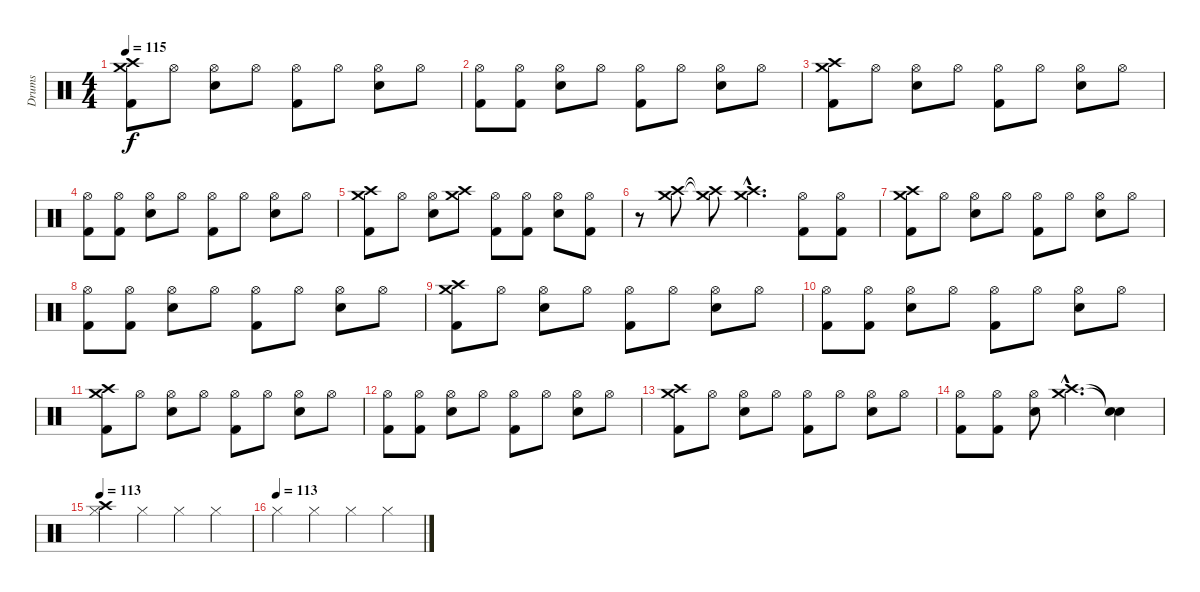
\track ("Drums" "Drums") {instrument percussion}
\staff {score}
\articulation defaults
\ts (4 4)
\tempo 115
\clef neutral
\ks c
("Crash high (hit)" "Crash medium (hit)" "Kick (hit) 2").8{dy f} "Hi-Hat (open)".8 ("Hi-Hat (open)" "Electric Snare (hit)").8 "Hi-Hat (open)".8 ("Hi-Hat (open)" "Kick (hit) 2").8 "Hi-Hat (open)".8 ("Hi-Hat (open)" "Electric Snare (hit)").8 "Hi-Hat (open)".8 |
("Hi-Hat (open)" "Kick (hit) 2").8 ("Hi-Hat (open)" "Kick (hit) 2").8 ("Hi-Hat (open)" "Electric Snare (hit)").8 "Hi-Hat (open)".8 ("Hi-Hat (open)" "Kick (hit) 2").8 "Hi-Hat (open)".8 ("Hi-Hat (open)" "Electric Snare (hit)").8 "Hi-Hat (open)".8 |
("Crash high (hit)" "Crash medium (hit)" "Kick (hit) 2").8 "Hi-Hat (open)".8 ("Hi-Hat (open)" "Electric Snare (hit)").8 "Hi-Hat (open)".8 ("Hi-Hat (open)" "Kick (hit) 2").8 "Hi-Hat (open)".8 ("Hi-Hat (open)" "Electric Snare (hit)").8 "Hi-Hat (open)".8 |
("Hi-Hat (open)" "Kick (hit) 2").8 ("Hi-Hat (open)" "Kick (hit) 2").8 ("Hi-Hat (open)" "Electric Snare (hit)").8 "Hi-Hat (open)".8 ("Hi-Hat (open)" "Kick (hit) 2").8 "Hi-Hat (open)".8 ("Hi-Hat (open)" "Electric Snare (hit)").8 "Hi-Hat (open)".8 |
("Crash high (hit)" "Crash medium (hit)" "Kick (hit) 2").8 "Hi-Hat (open)".8 ("Hi-Hat (open)" "Electric Snare (hit)").8 ("Crash high (hit)" "Crash medium (hit)").8 ("Hi-Hat (open)" "Kick (hit) 2").8 ("Hi-Hat (open)" "Kick (hit) 2").8 ("Hi-Hat (open)" "Electric Snare (hit)").8 ("Hi-Hat (open)" "Kick (hit) 2").8 |
r.8 ("Crash high (hit)" "Crash medium (hit)").8 ("Crash high (hit)"{t} "Crash medium (hit)"{t}).8 ("Crash high (hit)"{hac} "Crash medium (hit)"{hac}).4{d} ("Hi-Hat (open)" "Kick (hit) 2").8 ("Hi-Hat (open)" "Kick (hit) 2").8 |
("Crash high (hit)" "Crash medium (hit)" "Kick (hit) 2").8 "Hi-Hat (open)".8 ("Hi-Hat (open)" "Electric Snare (hit)").8 "Hi-Hat (open)".8 ("Hi-Hat (open)" "Kick (hit) 2").8 "Hi-Hat (open)".8 ("Hi-Hat (open)" "Electric Snare (hit)").8 "Hi-Hat (open)".8 |
("Hi-Hat (open)" "Kick (hit) 2").8 ("Hi-Hat (open)" "Kick (hit) 2").8 ("Hi-Hat (open)" "Electric Snare (hit)").8 "Hi-Hat (open)".8 ("Hi-Hat (open)" "Kick (hit) 2").8 "Hi-Hat (open)".8 ("Hi-Hat (open)" "Electric Snare (hit)").8 "Hi-Hat (open)".8 |
("Crash high (hit)" "Crash medium (hit)" "Kick (hit) 2").8 "Hi-Hat (open)".8 ("Hi-Hat (open)" "Electric Snare (hit)").8 "Hi-Hat (open)".8 ("Hi-Hat (open)" "Kick (hit) 2").8 "Hi-Hat (open)".8 ("Hi-Hat (open)" "Electric Snare (hit)").8 "Hi-Hat (open)".8 |
("Hi-Hat (open)" "Kick (hit) 2").8 ("Hi-Hat (open)" "Kick (hit) 2").8 ("Hi-Hat (open)" "Electric Snare (hit)").8 "Hi-Hat (open)".8 ("Hi-Hat (open)" "Kick (hit) 2").8 "Hi-Hat (open)".8 ("Hi-Hat (open)" "Electric Snare (hit)").8 "Hi-Hat (open)".8 |
("Crash high (hit)" "Crash medium (hit)" "Kick (hit) 2").8 "Hi-Hat (open)".8 ("Hi-Hat (open)" "Electric Snare (hit)").8 "Hi-Hat (open)".8 ("Hi-Hat (open)" "Kick (hit) 2").8 "Hi-Hat (open)".8 ("Hi-Hat (open)" "Electric Snare (hit)").8 "Hi-Hat (open)".8 |
("Hi-Hat (open)" "Kick (hit) 2").8 ("Hi-Hat (open)" "Kick (hit) 2").8 ("Hi-Hat (open)" "Electric Snare (hit)").8 "Hi-Hat (open)".8 ("Hi-Hat (open)" "Kick (hit) 2").8 "Hi-Hat (open)".8 ("Hi-Hat (open)" "Electric Snare (hit)").8 "Hi-Hat (open)".8 |
("Crash high (hit)" "Crash medium (hit)" "Kick (hit) 2").8 "Hi-Hat (open)".8 ("Hi-Hat (open)" "Electric Snare (hit)").8 "Hi-Hat (open)".8 ("Hi-Hat (open)" "Kick (hit) 2").8 "Hi-Hat (open)".8 ("Hi-Hat (open)" "Electric Snare (hit)").8 "Hi-Hat (open)".8 |
("Hi-Hat (open)" "Kick (hit) 2").8 ("Hi-Hat (open)" "Kick (hit) 2").8 ("Hi-Hat (open)" "Electric Snare (hit)").8 ("Crash high (hit)"{hac} "Crash medium (hit)"{hac}).4{d} ("Snare (hit)"{t} "Snare (hit)"{t}).4 |
\tempo 113
("Hi-Hat (closed)" "Crash high (hit)").4 "Hi-Hat (closed)".4 "Hi-Hat (closed)".4 "Hi-Hat (closed)".4 |
\tempo (113)
"Hi-Hat (closed)".4 "Hi-Hat (closed)".4 "Hi-Hat (closed)".4 "Hi-Hat (closed)".4
